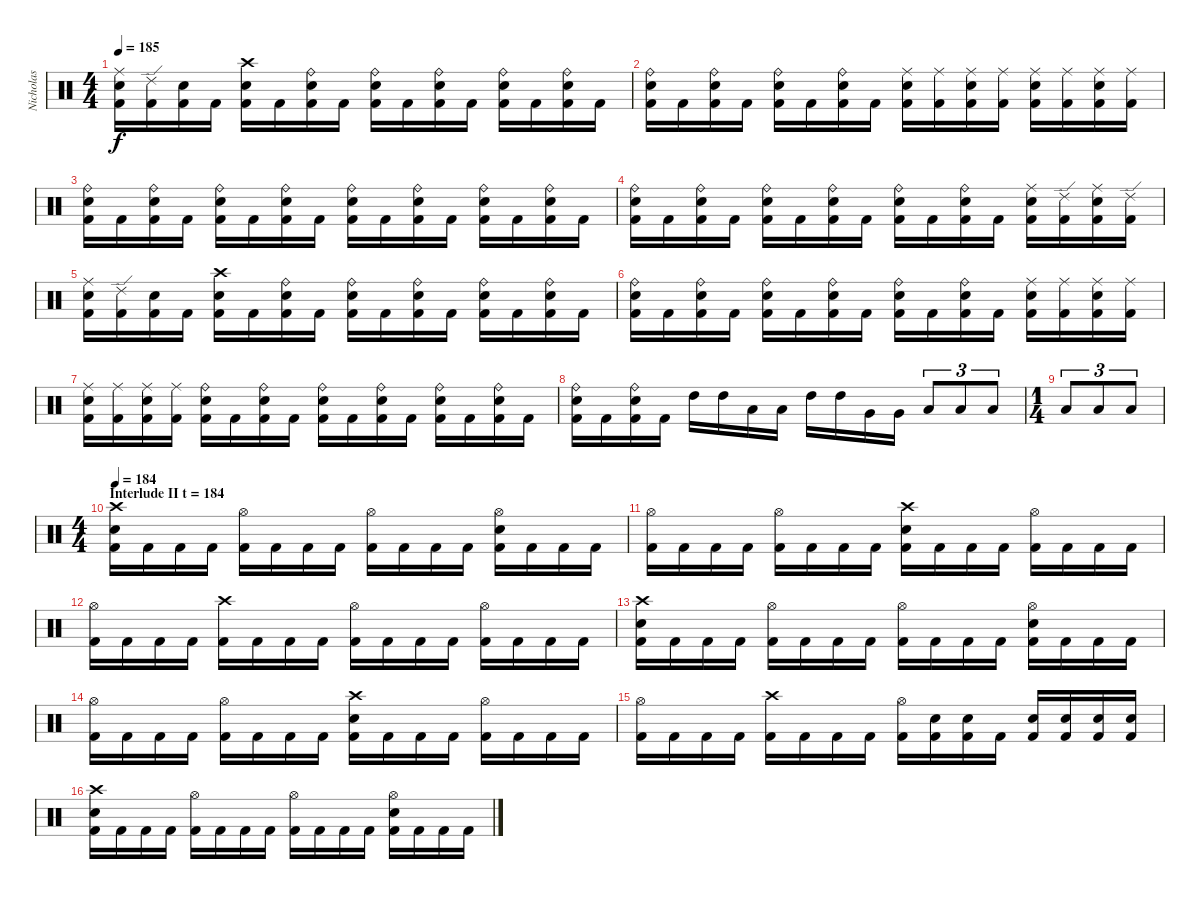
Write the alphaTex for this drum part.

\track ("Nicholas" "Nicholas") {instrument percussion}
\staff {score}
\articulation defaults
\ts (4 4)
\tempo 185
\clef neutral
\ks c
("Ride (middle)" "Electric Snare (hit)" "Kick (hit) 2").16{dy f} ("Ride (edge) 2" "Kick (hit) 2").16 ("Electric Snare (hit)" "Kick (hit) 2").16 "Kick (hit) 2".16 ("Crash high (hit)" "Electric Snare (hit)" "Kick (hit) 2").16 "Kick (hit) 2".16 ("Ride (bell)" "Electric Snare (hit)" "Kick (hit) 2").16 "Kick (hit) 2".16 ("Ride (bell)" "Electric Snare (hit)" "Kick (hit) 2").16 "Kick (hit) 2".16 ("Ride (bell)" "Electric Snare (hit)" "Kick (hit) 2").16 "Kick (hit) 2".16 ("Ride (bell)" "Electric Snare (hit)" "Kick (hit) 2").16 "Kick (hit) 2".16 ("Ride (bell)" "Electric Snare (hit)" "Kick (hit) 2").16 "Kick (hit) 2".16 |
("Ride (bell)" "Electric Snare (hit)" "Kick (hit) 2").16 "Kick (hit) 2".16 ("Ride (bell)" "Electric Snare (hit)" "Kick (hit) 2").16 "Kick (hit) 2".16 ("Ride (bell)" "Electric Snare (hit)" "Kick (hit) 2").16 "Kick (hit) 2".16 ("Ride (bell)" "Electric Snare (hit)" "Kick (hit) 2").16 "Kick (hit) 2".16 ("Ride (middle)" "Electric Snare (hit)" "Kick (hit) 2").16 ("Ride (middle)" "Kick (hit) 2").16 ("Ride (middle)" "Electric Snare (hit)" "Kick (hit) 2").16 ("Ride (middle)" "Kick (hit) 2").16 ("Ride (middle)" "Electric Snare (hit)" "Kick (hit) 2").16 ("Ride (middle)" "Kick (hit) 2").16 ("Ride (middle)" "Electric Snare (hit)" "Kick (hit) 2").16 ("Ride (middle)" "Kick (hit) 2").16 |
("Ride (bell)" "Electric Snare (hit)" "Kick (hit) 2").16 "Kick (hit) 2".16 ("Ride (bell)" "Electric Snare (hit)" "Kick (hit) 2").16 "Kick (hit) 2".16 ("Ride (bell)" "Electric Snare (hit)" "Kick (hit) 2").16 "Kick (hit) 2".16 ("Ride (bell)" "Electric Snare (hit)" "Kick (hit) 2").16 "Kick (hit) 2".16 ("Ride (bell)" "Electric Snare (hit)" "Kick (hit) 2").16 "Kick (hit) 2".16 ("Ride (bell)" "Electric Snare (hit)" "Kick (hit) 2").16 "Kick (hit) 2".16 ("Ride (bell)" "Electric Snare (hit)" "Kick (hit) 2").16 "Kick (hit) 2".16 ("Ride (bell)" "Electric Snare (hit)" "Kick (hit) 2").16 "Kick (hit) 2".16 |
("Ride (bell)" "Electric Snare (hit)" "Kick (hit) 2").16 "Kick (hit) 2".16 ("Ride (bell)" "Electric Snare (hit)" "Kick (hit) 2").16 "Kick (hit) 2".16 ("Ride (bell)" "Electric Snare (hit)" "Kick (hit) 2").16 "Kick (hit) 2".16 ("Ride (bell)" "Electric Snare (hit)" "Kick (hit) 2").16 "Kick (hit) 2".16 ("Ride (bell)" "Electric Snare (hit)" "Kick (hit) 2").16 "Kick (hit) 2".16 ("Ride (bell)" "Electric Snare (hit)" "Kick (hit) 2").16 "Kick (hit) 2".16 ("Ride (middle)" "Electric Snare (hit)" "Kick (hit) 2").16 ("Ride (edge) 2" "Kick (hit) 2").16 ("Ride (middle)" "Electric Snare (hit)" "Kick (hit) 2").16 ("Ride (edge) 2" "Kick (hit) 2").16 |
("Ride (middle)" "Electric Snare (hit)" "Kick (hit) 2").16 ("Ride (edge) 2" "Kick (hit) 2").16 ("Electric Snare (hit)" "Kick (hit) 2").16 "Kick (hit) 2".16 ("Crash high (hit)" "Electric Snare (hit)" "Kick (hit) 2").16 "Kick (hit) 2".16 ("Ride (bell)" "Electric Snare (hit)" "Kick (hit) 2").16 "Kick (hit) 2".16 ("Ride (bell)" "Electric Snare (hit)" "Kick (hit) 2").16 "Kick (hit) 2".16 ("Ride (bell)" "Electric Snare (hit)" "Kick (hit) 2").16 "Kick (hit) 2".16 ("Ride (bell)" "Electric Snare (hit)" "Kick (hit) 2").16 "Kick (hit) 2".16 ("Ride (bell)" "Electric Snare (hit)" "Kick (hit) 2").16 "Kick (hit) 2".16 |
("Ride (bell)" "Electric Snare (hit)" "Kick (hit) 2").16 "Kick (hit) 2".16 ("Ride (bell)" "Electric Snare (hit)" "Kick (hit) 2").16 "Kick (hit) 2".16 ("Ride (bell)" "Electric Snare (hit)" "Kick (hit) 2").16 "Kick (hit) 2".16 ("Ride (bell)" "Electric Snare (hit)" "Kick (hit) 2").16 "Kick (hit) 2".16 ("Ride (bell)" "Electric Snare (hit)" "Kick (hit) 2").16 "Kick (hit) 2".16 ("Ride (bell)" "Electric Snare (hit)" "Kick (hit) 2").16 "Kick (hit) 2".16 ("Ride (middle)" "Electric Snare (hit)" "Kick (hit) 2").16 ("Ride (middle)" "Kick (hit) 2").16 ("Ride (middle)" "Electric Snare (hit)" "Kick (hit) 2").16 ("Ride (middle)" "Kick (hit) 2").16 |
("Ride (middle)" "Electric Snare (hit)" "Kick (hit) 2").16 ("Ride (middle)" "Kick (hit) 2").16 ("Ride (middle)" "Electric Snare (hit)" "Kick (hit) 2").16 ("Ride (middle)" "Kick (hit) 2").16 ("Ride (bell)" "Electric Snare (hit)" "Kick (hit) 2").16 "Kick (hit) 2".16 ("Ride (bell)" "Electric Snare (hit)" "Kick (hit) 2").16 "Kick (hit) 2".16 ("Ride (bell)" "Electric Snare (hit)" "Kick (hit) 2").16 "Kick (hit) 2".16 ("Ride (bell)" "Electric Snare (hit)" "Kick (hit) 2").16 "Kick (hit) 2".16 ("Ride (bell)" "Electric Snare (hit)" "Kick (hit) 2").16 "Kick (hit) 2".16 ("Ride (bell)" "Electric Snare (hit)" "Kick (hit) 2").16 "Kick (hit) 2".16 |
("Ride (bell)" "Electric Snare (hit)" "Kick (hit) 2").16 "Kick (hit) 2".16 ("Ride (bell)" "Electric Snare (hit)" "Kick (hit) 2").16 "Kick (hit) 2".16 "High Tom (hit)".16 "High Tom (hit)".16 "Low Tom (hit)".16 "Low Tom (hit)".16 "High Tom (hit)".16 "High Tom (hit)".16 "Very Low Tom (hit)".16 "Very Low Tom (hit)".16 "Low Floor Tom (hit)".8{tu (3 2)} "Low Floor Tom (hit)".8{tu (3 2)} "Low Floor Tom (hit)".8{tu (3 2)} |
\ts (1 4)
"Low Floor Tom (hit)".8{tu (3 2)} "Low Floor Tom (hit)".8{tu (3 2)} "Low Floor Tom (hit)".8{tu (3 2)} |
\ts (4 4)
\section ("" "Interlude II t = 184")
\tempo 184
("Crash high (hit)" "Electric Snare (hit)" "Kick (hit) 2").16 "Kick (hit) 2".16 "Kick (hit) 2".16 "Kick (hit) 2".16 ("Hi-Hat (open)" "Kick (hit) 2").16 "Kick (hit) 2".16 "Kick (hit) 2".16 "Kick (hit) 2".16 ("Hi-Hat (open)" "Kick (hit) 2").16 "Kick (hit) 2".16 "Kick (hit) 2".16 "Kick (hit) 2".16 ("Hi-Hat (open)" "Electric Snare (hit)" "Kick (hit) 2").16 "Kick (hit) 2".16 "Kick (hit) 2".16 "Kick (hit) 2".16 |
("Hi-Hat (open)" "Kick (hit) 2").16 "Kick (hit) 2".16 "Kick (hit) 2".16 "Kick (hit) 2".16 ("Hi-Hat (open)" "Kick (hit) 2").16 "Kick (hit) 2".16 "Kick (hit) 2".16 "Kick (hit) 2".16 ("Crash high (hit)" "Electric Snare (hit)" "Kick (hit) 2").16 "Kick (hit) 2".16 "Kick (hit) 2".16 "Kick (hit) 2".16 ("Hi-Hat (open)" "Kick (hit) 2").16 "Kick (hit) 2".16 "Kick (hit) 2".16 "Kick (hit) 2".16 |
("Hi-Hat (open)" "Kick (hit) 2").16 "Kick (hit) 2".16 "Kick (hit) 2".16 "Kick (hit) 2".16 ("Crash high (hit)" "Kick (hit) 2").16 "Kick (hit) 2".16 "Kick (hit) 2".16 "Kick (hit) 2".16 ("Hi-Hat (open)" "Kick (hit) 2").16 "Kick (hit) 2".16 "Kick (hit) 2".16 "Kick (hit) 2".16 ("Hi-Hat (open)" "Kick (hit) 2").16 "Kick (hit) 2".16 "Kick (hit) 2".16 "Kick (hit) 2".16 |
("Crash high (hit)" "Electric Snare (hit)" "Kick (hit) 2").16 "Kick (hit) 2".16 "Kick (hit) 2".16 "Kick (hit) 2".16 ("Hi-Hat (open)" "Kick (hit) 2").16 "Kick (hit) 2".16 "Kick (hit) 2".16 "Kick (hit) 2".16 ("Hi-Hat (open)" "Kick (hit) 2").16 "Kick (hit) 2".16 "Kick (hit) 2".16 "Kick (hit) 2".16 ("Hi-Hat (open)" "Electric Snare (hit)" "Kick (hit) 2").16 "Kick (hit) 2".16 "Kick (hit) 2".16 "Kick (hit) 2".16 |
("Hi-Hat (open)" "Kick (hit) 2").16 "Kick (hit) 2".16 "Kick (hit) 2".16 "Kick (hit) 2".16 ("Hi-Hat (open)" "Kick (hit) 2").16 "Kick (hit) 2".16 "Kick (hit) 2".16 "Kick (hit) 2".16 ("Crash high (hit)" "Electric Snare (hit)" "Kick (hit) 2").16 "Kick (hit) 2".16 "Kick (hit) 2".16 "Kick (hit) 2".16 ("Hi-Hat (open)" "Kick (hit) 2").16 "Kick (hit) 2".16 "Kick (hit) 2".16 "Kick (hit) 2".16 |
("Hi-Hat (open)" "Kick (hit) 2").16 "Kick (hit) 2".16 "Kick (hit) 2".16 "Kick (hit) 2".16 ("Crash high (hit)" "Kick (hit) 2").16 "Kick (hit) 2".16 "Kick (hit) 2".16 "Kick (hit) 2".16 ("Hi-Hat (open)" "Kick (hit) 2").16 ("Electric Snare (hit)" "Kick (hit) 2").16 ("Electric Snare (hit)" "Kick (hit) 2").16 "Kick (hit) 2".16 ("Electric Snare (hit)" "Kick (hit) 2").16 ("Electric Snare (hit)" "Kick (hit) 2").16 ("Electric Snare (hit)" "Kick (hit) 2").16 ("Electric Snare (hit)" "Kick (hit) 2").16 |
("Crash high (hit)" "Electric Snare (hit)" "Kick (hit) 2").16 "Kick (hit) 2".16 "Kick (hit) 2".16 "Kick (hit) 2".16 ("Hi-Hat (open)" "Kick (hit) 2").16 "Kick (hit) 2".16 "Kick (hit) 2".16 "Kick (hit) 2".16 ("Hi-Hat (open)" "Kick (hit) 2").16 "Kick (hit) 2".16 "Kick (hit) 2".16 "Kick (hit) 2".16 ("Hi-Hat (open)" "Electric Snare (hit)" "Kick (hit) 2").16 "Kick (hit) 2".16 "Kick (hit) 2".16 "Kick (hit) 2".16
